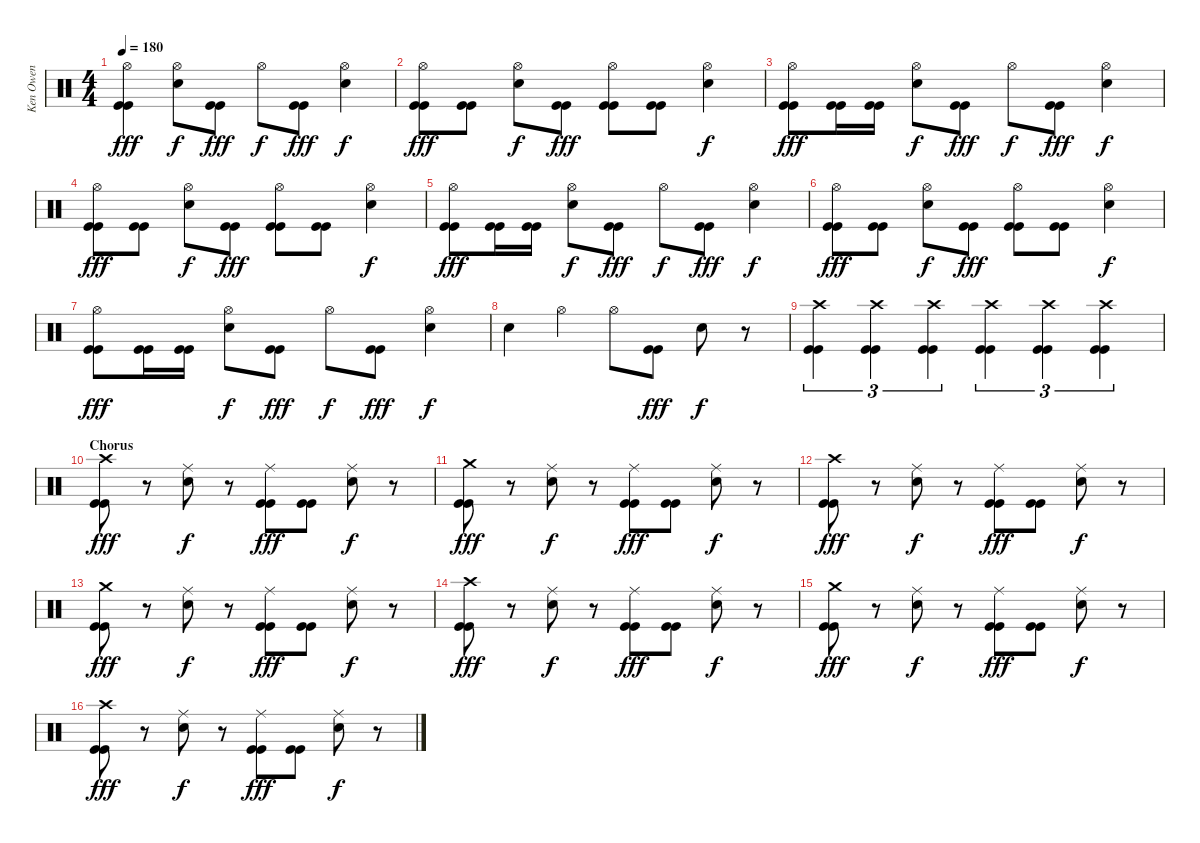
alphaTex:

\track ("Ken Owen" "Ken Owen") {instrument percussion}
\staff {score}
\articulation defaults
\ts (4 4)
\tempo 180
\clef neutral
\ks c
("Hi-Hat (open)" "Kick (hit)" "Kick (hit)").4{dy fff} ("Hi-Hat (open)" "Snare (hit) 2").8{dy f} ("Kick (hit)" "Kick (hit)").8{dy fff} "Hi-Hat (open)".8{dy f} ("Kick (hit)" "Kick (hit)").8{dy fff} ("Hi-Hat (open)" "Snare (hit) 2").4{dy f} |
("Hi-Hat (open)" "Kick (hit)" "Kick (hit)").8{dy fff} ("Kick (hit)" "Kick (hit)").8 ("Hi-Hat (open)" "Snare (hit) 2").8{dy f} ("Kick (hit)" "Kick (hit)").8{dy fff} ("Hi-Hat (open)" "Kick (hit)" "Kick (hit)").8 ("Kick (hit)" "Kick (hit)").8 ("Hi-Hat (open)" "Snare (hit) 2").4{dy f} |
("Hi-Hat (open)" "Kick (hit)" "Kick (hit)").8{dy fff} ("Kick (hit)" "Kick (hit)").16 ("Kick (hit)" "Kick (hit)").16 ("Hi-Hat (open)" "Snare (hit) 2").8{dy f} ("Kick (hit)" "Kick (hit)").8{dy fff} "Hi-Hat (open)".8{dy f} ("Kick (hit)" "Kick (hit)").8{dy fff} ("Hi-Hat (open)" "Snare (hit) 2").4{dy f} |
("Hi-Hat (open)" "Kick (hit)" "Kick (hit)").8{dy fff} ("Kick (hit)" "Kick (hit)").8 ("Hi-Hat (open)" "Snare (hit) 2").8{dy f} ("Kick (hit)" "Kick (hit)").8{dy fff} ("Hi-Hat (open)" "Kick (hit)" "Kick (hit)").8 ("Kick (hit)" "Kick (hit)").8 ("Hi-Hat (open)" "Snare (hit) 2").4{dy f} |
("Hi-Hat (open)" "Kick (hit)" "Kick (hit)").8{dy fff} ("Kick (hit)" "Kick (hit)").16 ("Kick (hit)" "Kick (hit)").16 ("Hi-Hat (open)" "Snare (hit) 2").8{dy f} ("Kick (hit)" "Kick (hit)").8{dy fff} "Hi-Hat (open)".8{dy f} ("Kick (hit)" "Kick (hit)").8{dy fff} ("Hi-Hat (open)" "Snare (hit) 2").4{dy f} |
("Hi-Hat (open)" "Kick (hit)" "Kick (hit)").8{dy fff} ("Kick (hit)" "Kick (hit)").8 ("Hi-Hat (open)" "Snare (hit) 2").8{dy f} ("Kick (hit)" "Kick (hit)").8{dy fff} ("Hi-Hat (open)" "Kick (hit)" "Kick (hit)").8 ("Kick (hit)" "Kick (hit)").8 ("Hi-Hat (open)" "Snare (hit) 2").4{dy f} |
("Hi-Hat (open)" "Kick (hit)" "Kick (hit)").8{dy fff} ("Kick (hit)" "Kick (hit)").16 ("Kick (hit)" "Kick (hit)").16 ("Hi-Hat (open)" "Snare (hit) 2").8{dy f} ("Kick (hit)" "Kick (hit)").8{dy fff} "Hi-Hat (open)".8{dy f} ("Kick (hit)" "Kick (hit)").8{dy fff} ("Hi-Hat (open)" "Snare (hit) 2").4{dy f} |
"Snare (hit) 2".4 "Hi-Hat (open)".4 "Hi-Hat (open)".8 ("Kick (hit)" "Kick (hit)").8{dy fff} "Snare (hit) 2".8{dy f} r.8 |
("Crash high (hit)" "Kick (hit)" "Kick (hit)").4{tu (3 2)} ("Crash high (hit)" "Kick (hit)" "Kick (hit)").4{tu (3 2)} ("Crash high (hit)" "Kick (hit)" "Kick (hit)").4{tu (3 2)} ("Crash high (hit)" "Kick (hit)" "Kick (hit)").4{tu (3 2)} ("Crash high (hit)" "Kick (hit)" "Kick (hit)").4{tu (3 2)} ("Crash high (hit)" "Kick (hit)" "Kick (hit)").4{tu (3 2)} |
\section ("" "Chorus")
("Crash high (hit)" "Kick (hit)" "Kick (hit)").8{dy fff} r.8 ("Ride (middle)" "Snare (hit) 2").8{dy f} r.8 ("Ride (middle)" "Kick (hit)" "Kick (hit)").8{dy fff} ("Kick (hit)" "Kick (hit)").8 ("Ride (middle)" "Snare (hit) 2").8{dy f} r.8 |
("Crash medium (hit)" "Kick (hit)" "Kick (hit)").8{dy fff} r.8 ("Ride (middle)" "Snare (hit) 2").8{dy f} r.8 ("Ride (middle)" "Kick (hit)" "Kick (hit)").8{dy fff} ("Kick (hit)" "Kick (hit)").8 ("Ride (middle)" "Snare (hit) 2").8{dy f} r.8 |
("Crash high (hit)" "Kick (hit)" "Kick (hit)").8{dy fff} r.8 ("Ride (middle)" "Snare (hit) 2").8{dy f} r.8 ("Ride (middle)" "Kick (hit)" "Kick (hit)").8{dy fff} ("Kick (hit)" "Kick (hit)").8 ("Ride (middle)" "Snare (hit) 2").8{dy f} r.8 |
("Crash medium (hit)" "Kick (hit)" "Kick (hit)").8{dy fff} r.8 ("Ride (middle)" "Snare (hit) 2").8{dy f} r.8 ("Ride (middle)" "Kick (hit)" "Kick (hit)").8{dy fff} ("Kick (hit)" "Kick (hit)").8 ("Ride (middle)" "Snare (hit) 2").8{dy f} r.8 |
("Crash high (hit)" "Kick (hit)" "Kick (hit)").8{dy fff} r.8 ("Ride (middle)" "Snare (hit) 2").8{dy f} r.8 ("Ride (middle)" "Kick (hit)" "Kick (hit)").8{dy fff} ("Kick (hit)" "Kick (hit)").8 ("Ride (middle)" "Snare (hit) 2").8{dy f} r.8 |
("Crash medium (hit)" "Kick (hit)" "Kick (hit)").8{dy fff} r.8 ("Ride (middle)" "Snare (hit) 2").8{dy f} r.8 ("Ride (middle)" "Kick (hit)" "Kick (hit)").8{dy fff} ("Kick (hit)" "Kick (hit)").8 ("Ride (middle)" "Snare (hit) 2").8{dy f} r.8 |
("Crash high (hit)" "Kick (hit)" "Kick (hit)").8{dy fff} r.8 ("Ride (middle)" "Snare (hit) 2").8{dy f} r.8 ("Ride (middle)" "Kick (hit)" "Kick (hit)").8{dy fff} ("Kick (hit)" "Kick (hit)").8 ("Ride (middle)" "Snare (hit) 2").8{dy f} r.8
